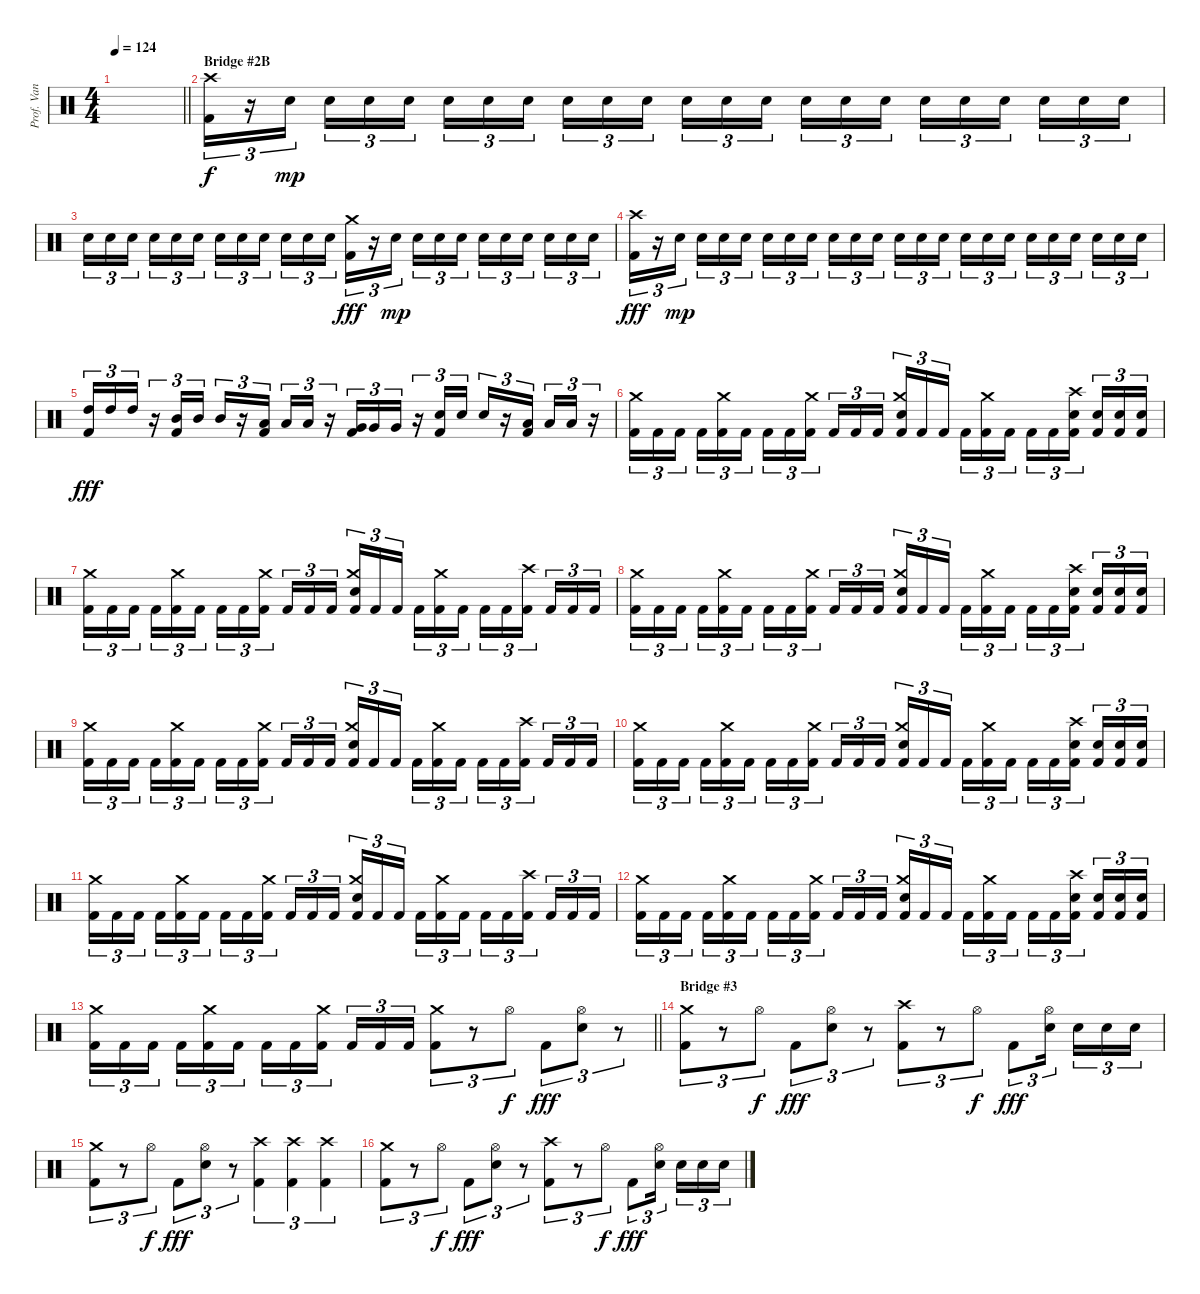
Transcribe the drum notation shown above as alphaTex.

\track ("Prof. Van Helsing (Drums)" "Prof. Van ") {instrument percussion}
\staff {score}
\articulation defaults
\ts (4 4)
\tempo 124
\clef neutral
\barLineRight lightlight
\ks c
|
\section ("" "Bridge #2B")
("Crash high (hit)" "Kick (hit) 2").16{tu (3 2)} r.16{tu (3 2)} "Electric Snare (hit)".16{tu (3 2) dy mp beam splitsecondary} "Electric Snare (hit)".16{tu (3 2)} "Electric Snare (hit)".16{tu (3 2)} "Electric Snare (hit)".16{tu (3 2)} "Electric Snare (hit)".16{tu (3 2)} "Electric Snare (hit)".16{tu (3 2)} "Electric Snare (hit)".16{tu (3 2) beam splitsecondary} "Electric Snare (hit)".16{tu (3 2)} "Electric Snare (hit)".16{tu (3 2)} "Electric Snare (hit)".16{tu (3 2)} "Electric Snare (hit)".16{tu (3 2)} "Electric Snare (hit)".16{tu (3 2)} "Electric Snare (hit)".16{tu (3 2) beam splitsecondary} "Electric Snare (hit)".16{tu (3 2)} "Electric Snare (hit)".16{tu (3 2)} "Electric Snare (hit)".16{tu (3 2)} "Electric Snare (hit)".16{tu (3 2)} "Electric Snare (hit)".16{tu (3 2)} "Electric Snare (hit)".16{tu (3 2) beam splitsecondary} "Electric Snare (hit)".16{tu (3 2)} "Electric Snare (hit)".16{tu (3 2)} "Electric Snare (hit)".16{tu (3 2)} |
"Electric Snare (hit)".16{tu (3 2)} "Electric Snare (hit)".16{tu (3 2)} "Electric Snare (hit)".16{tu (3 2) beam splitsecondary} "Electric Snare (hit)".16{tu (3 2)} "Electric Snare (hit)".16{tu (3 2)} "Electric Snare (hit)".16{tu (3 2)} "Electric Snare (hit)".16{tu (3 2)} "Electric Snare (hit)".16{tu (3 2)} "Electric Snare (hit)".16{tu (3 2) beam splitsecondary} "Electric Snare (hit)".16{tu (3 2)} "Electric Snare (hit)".16{tu (3 2)} "Electric Snare (hit)".16{tu (3 2)} ("Crash medium (hit)" "Kick (hit) 2").16{tu (3 2) dy fff} r.16{tu (3 2)} "Electric Snare (hit)".16{tu (3 2) dy mp beam splitsecondary} "Electric Snare (hit)".16{tu (3 2)} "Electric Snare (hit)".16{tu (3 2)} "Electric Snare (hit)".16{tu (3 2)} "Electric Snare (hit)".16{tu (3 2)} "Electric Snare (hit)".16{tu (3 2)} "Electric Snare (hit)".16{tu (3 2) beam splitsecondary} "Electric Snare (hit)".16{tu (3 2)} "Electric Snare (hit)".16{tu (3 2)} "Electric Snare (hit)".16{tu (3 2)} |
("Crash high (hit)" "Kick (hit) 2").16{tu (3 2) dy fff} r.16{tu (3 2)} "Electric Snare (hit)".16{tu (3 2) dy mp beam splitsecondary} "Electric Snare (hit)".16{tu (3 2)} "Electric Snare (hit)".16{tu (3 2)} "Electric Snare (hit)".16{tu (3 2)} "Electric Snare (hit)".16{tu (3 2)} "Electric Snare (hit)".16{tu (3 2)} "Electric Snare (hit)".16{tu (3 2) beam splitsecondary} "Electric Snare (hit)".16{tu (3 2)} "Electric Snare (hit)".16{tu (3 2)} "Electric Snare (hit)".16{tu (3 2)} "Electric Snare (hit)".16{tu (3 2)} "Electric Snare (hit)".16{tu (3 2)} "Electric Snare (hit)".16{tu (3 2) beam splitsecondary} "Electric Snare (hit)".16{tu (3 2)} "Electric Snare (hit)".16{tu (3 2)} "Electric Snare (hit)".16{tu (3 2)} "Electric Snare (hit)".16{tu (3 2)} "Electric Snare (hit)".16{tu (3 2)} "Electric Snare (hit)".16{tu (3 2) beam splitsecondary} "Electric Snare (hit)".16{tu (3 2)} "Electric Snare (hit)".16{tu (3 2)} "Electric Snare (hit)".16{tu (3 2)} |
("High Tom (hit)" "Kick (hit) 2").16{tu (3 2) dy fff} "High Tom (hit)".16{tu (3 2)} "High Tom (hit)".16{tu (3 2)} r.16{tu (3 2)} ("Mid Tom (hit)" "Kick (hit) 2").16{tu (3 2)} "Mid Tom (hit)".16{tu (3 2)} "Mid Tom (hit)".16{tu (3 2)} r.16{tu (3 2)} ("Low Tom (hit)" "Kick (hit) 2").16{tu (3 2) beam splitsecondary} "Low Tom (hit)".16{tu (3 2)} "Low Tom (hit)".16{tu (3 2)} r.16{tu (3 2)} ("Very Low Tom (hit)" "Kick (hit) 2").16{tu (3 2)} "Very Low Tom (hit)".16{tu (3 2)} "Very Low Tom (hit)".16{tu (3 2)} r.16{tu (3 2)} ("Snare (hit) 2" "Kick (hit) 2").16{tu (3 2)} "Snare (hit) 2".16{tu (3 2)} "Snare (hit) 2".16{tu (3 2)} r.16{tu (3 2)} ("Low Floor Tom (hit)" "Kick (hit) 2").16{tu (3 2) beam splitsecondary} "Low Floor Tom (hit)".16{tu (3 2)} "Low Floor Tom (hit)".16{tu (3 2)} r.16{tu (3 2)} |
("Crash medium (hit)" "Kick (hit) 2").16{tu (3 2)} "Kick (hit) 2".16{tu (3 2)} "Kick (hit) 2".16{tu (3 2) beam splitsecondary} "Kick (hit) 2".16{tu (3 2)} ("Crash medium (hit)" "Kick (hit) 2").16{tu (3 2)} "Kick (hit) 2".16{tu (3 2)} "Kick (hit) 2".16{tu (3 2)} "Kick (hit) 2".16{tu (3 2)} ("Crash medium (hit)" "Kick (hit) 2").16{tu (3 2) beam splitsecondary} "Kick (hit) 2".16{tu (3 2)} "Kick (hit) 2".16{tu (3 2)} "Kick (hit) 2".16{tu (3 2)} ("Crash medium (hit)" "Snare (hit) 2" "Kick (hit) 2").16{tu (3 2)} "Kick (hit) 2".16{tu (3 2)} "Kick (hit) 2".16{tu (3 2) beam splitsecondary} "Kick (hit) 2".16{tu (3 2)} ("Crash medium (hit)" "Kick (hit) 2").16{tu (3 2)} "Kick (hit) 2".16{tu (3 2)} "Kick (hit) 2".16{tu (3 2)} "Kick (hit) 2".16{tu (3 2)} ("Crash high (hit)" "Snare (hit) 2" "Kick (hit) 2").16{tu (3 2) beam splitsecondary} ("Snare (hit) 2" "Kick (hit) 2").16{tu (3 2)} ("Snare (hit) 2" "Kick (hit) 2").16{tu (3 2)} ("Snare (hit) 2" "Kick (hit) 2").16{tu (3 2)} |
("Crash medium (hit)" "Kick (hit) 2").16{tu (3 2)} "Kick (hit) 2".16{tu (3 2)} "Kick (hit) 2".16{tu (3 2) beam splitsecondary} "Kick (hit) 2".16{tu (3 2)} ("Crash medium (hit)" "Kick (hit) 2").16{tu (3 2)} "Kick (hit) 2".16{tu (3 2)} "Kick (hit) 2".16{tu (3 2)} "Kick (hit) 2".16{tu (3 2)} ("Crash medium (hit)" "Kick (hit) 2").16{tu (3 2) beam splitsecondary} "Kick (hit) 2".16{tu (3 2)} "Kick (hit) 2".16{tu (3 2)} "Kick (hit) 2".16{tu (3 2)} ("Crash medium (hit)" "Snare (hit) 2" "Kick (hit) 2").16{tu (3 2)} "Kick (hit) 2".16{tu (3 2)} "Kick (hit) 2".16{tu (3 2) beam splitsecondary} "Kick (hit) 2".16{tu (3 2)} ("Crash medium (hit)" "Kick (hit) 2").16{tu (3 2)} "Kick (hit) 2".16{tu (3 2)} "Kick (hit) 2".16{tu (3 2)} "Kick (hit) 2".16{tu (3 2)} ("Crash high (hit)" "Kick (hit) 2").16{tu (3 2) beam splitsecondary} "Kick (hit) 2".16{tu (3 2)} "Kick (hit) 2".16{tu (3 2)} "Kick (hit) 2".16{tu (3 2)} |
("Crash medium (hit)" "Kick (hit) 2").16{tu (3 2)} "Kick (hit) 2".16{tu (3 2)} "Kick (hit) 2".16{tu (3 2) beam splitsecondary} "Kick (hit) 2".16{tu (3 2)} ("Crash medium (hit)" "Kick (hit) 2").16{tu (3 2)} "Kick (hit) 2".16{tu (3 2)} "Kick (hit) 2".16{tu (3 2)} "Kick (hit) 2".16{tu (3 2)} ("Crash medium (hit)" "Kick (hit) 2").16{tu (3 2) beam splitsecondary} "Kick (hit) 2".16{tu (3 2)} "Kick (hit) 2".16{tu (3 2)} "Kick (hit) 2".16{tu (3 2)} ("Crash medium (hit)" "Snare (hit) 2" "Kick (hit) 2").16{tu (3 2)} "Kick (hit) 2".16{tu (3 2)} "Kick (hit) 2".16{tu (3 2) beam splitsecondary} "Kick (hit) 2".16{tu (3 2)} ("Crash medium (hit)" "Kick (hit) 2").16{tu (3 2)} "Kick (hit) 2".16{tu (3 2)} "Kick (hit) 2".16{tu (3 2)} "Kick (hit) 2".16{tu (3 2)} ("Crash high (hit)" "Snare (hit) 2" "Kick (hit) 2").16{tu (3 2) beam splitsecondary} ("Snare (hit) 2" "Kick (hit) 2").16{tu (3 2)} ("Snare (hit) 2" "Kick (hit) 2").16{tu (3 2)} ("Snare (hit) 2" "Kick (hit) 2").16{tu (3 2)} |
("Crash medium (hit)" "Kick (hit) 2").16{tu (3 2)} "Kick (hit) 2".16{tu (3 2)} "Kick (hit) 2".16{tu (3 2) beam splitsecondary} "Kick (hit) 2".16{tu (3 2)} ("Crash medium (hit)" "Kick (hit) 2").16{tu (3 2)} "Kick (hit) 2".16{tu (3 2)} "Kick (hit) 2".16{tu (3 2)} "Kick (hit) 2".16{tu (3 2)} ("Crash medium (hit)" "Kick (hit) 2").16{tu (3 2) beam splitsecondary} "Kick (hit) 2".16{tu (3 2)} "Kick (hit) 2".16{tu (3 2)} "Kick (hit) 2".16{tu (3 2)} ("Crash medium (hit)" "Snare (hit) 2" "Kick (hit) 2").16{tu (3 2)} "Kick (hit) 2".16{tu (3 2)} "Kick (hit) 2".16{tu (3 2) beam splitsecondary} "Kick (hit) 2".16{tu (3 2)} ("Crash medium (hit)" "Kick (hit) 2").16{tu (3 2)} "Kick (hit) 2".16{tu (3 2)} "Kick (hit) 2".16{tu (3 2)} "Kick (hit) 2".16{tu (3 2)} ("Crash high (hit)" "Kick (hit) 2").16{tu (3 2) beam splitsecondary} "Kick (hit) 2".16{tu (3 2)} "Kick (hit) 2".16{tu (3 2)} "Kick (hit) 2".16{tu (3 2)} |
("Crash medium (hit)" "Kick (hit) 2").16{tu (3 2)} "Kick (hit) 2".16{tu (3 2)} "Kick (hit) 2".16{tu (3 2) beam splitsecondary} "Kick (hit) 2".16{tu (3 2)} ("Crash medium (hit)" "Kick (hit) 2").16{tu (3 2)} "Kick (hit) 2".16{tu (3 2)} "Kick (hit) 2".16{tu (3 2)} "Kick (hit) 2".16{tu (3 2)} ("Crash medium (hit)" "Kick (hit) 2").16{tu (3 2) beam splitsecondary} "Kick (hit) 2".16{tu (3 2)} "Kick (hit) 2".16{tu (3 2)} "Kick (hit) 2".16{tu (3 2)} ("Crash medium (hit)" "Snare (hit) 2" "Kick (hit) 2").16{tu (3 2)} "Kick (hit) 2".16{tu (3 2)} "Kick (hit) 2".16{tu (3 2) beam splitsecondary} "Kick (hit) 2".16{tu (3 2)} ("Crash medium (hit)" "Kick (hit) 2").16{tu (3 2)} "Kick (hit) 2".16{tu (3 2)} "Kick (hit) 2".16{tu (3 2)} "Kick (hit) 2".16{tu (3 2)} ("Crash high (hit)" "Snare (hit) 2" "Kick (hit) 2").16{tu (3 2) beam splitsecondary} ("Snare (hit) 2" "Kick (hit) 2").16{tu (3 2)} ("Snare (hit) 2" "Kick (hit) 2").16{tu (3 2)} ("Snare (hit) 2" "Kick (hit) 2").16{tu (3 2)} |
("Crash medium (hit)" "Kick (hit) 2").16{tu (3 2)} "Kick (hit) 2".16{tu (3 2)} "Kick (hit) 2".16{tu (3 2) beam splitsecondary} "Kick (hit) 2".16{tu (3 2)} ("Crash medium (hit)" "Kick (hit) 2").16{tu (3 2)} "Kick (hit) 2".16{tu (3 2)} "Kick (hit) 2".16{tu (3 2)} "Kick (hit) 2".16{tu (3 2)} ("Crash medium (hit)" "Kick (hit) 2").16{tu (3 2) beam splitsecondary} "Kick (hit) 2".16{tu (3 2)} "Kick (hit) 2".16{tu (3 2)} "Kick (hit) 2".16{tu (3 2)} ("Crash medium (hit)" "Snare (hit) 2" "Kick (hit) 2").16{tu (3 2)} "Kick (hit) 2".16{tu (3 2)} "Kick (hit) 2".16{tu (3 2) beam splitsecondary} "Kick (hit) 2".16{tu (3 2)} ("Crash medium (hit)" "Kick (hit) 2").16{tu (3 2)} "Kick (hit) 2".16{tu (3 2)} "Kick (hit) 2".16{tu (3 2)} "Kick (hit) 2".16{tu (3 2)} ("Crash high (hit)" "Kick (hit) 2").16{tu (3 2) beam splitsecondary} "Kick (hit) 2".16{tu (3 2)} "Kick (hit) 2".16{tu (3 2)} "Kick (hit) 2".16{tu (3 2)} |
("Crash medium (hit)" "Kick (hit) 2").16{tu (3 2)} "Kick (hit) 2".16{tu (3 2)} "Kick (hit) 2".16{tu (3 2) beam splitsecondary} "Kick (hit) 2".16{tu (3 2)} ("Crash medium (hit)" "Kick (hit) 2").16{tu (3 2)} "Kick (hit) 2".16{tu (3 2)} "Kick (hit) 2".16{tu (3 2)} "Kick (hit) 2".16{tu (3 2)} ("Crash medium (hit)" "Kick (hit) 2").16{tu (3 2) beam splitsecondary} "Kick (hit) 2".16{tu (3 2)} "Kick (hit) 2".16{tu (3 2)} "Kick (hit) 2".16{tu (3 2)} ("Crash medium (hit)" "Snare (hit) 2" "Kick (hit) 2").16{tu (3 2)} "Kick (hit) 2".16{tu (3 2)} "Kick (hit) 2".16{tu (3 2) beam splitsecondary} "Kick (hit) 2".16{tu (3 2)} ("Crash medium (hit)" "Kick (hit) 2").16{tu (3 2)} "Kick (hit) 2".16{tu (3 2)} "Kick (hit) 2".16{tu (3 2)} "Kick (hit) 2".16{tu (3 2)} ("Crash high (hit)" "Snare (hit) 2" "Kick (hit) 2").16{tu (3 2) beam splitsecondary} ("Snare (hit) 2" "Kick (hit) 2").16{tu (3 2)} ("Snare (hit) 2" "Kick (hit) 2").16{tu (3 2)} ("Snare (hit) 2" "Kick (hit) 2").16{tu (3 2)} |
\barLineRight lightlight
("Crash medium (hit)" "Kick (hit) 2").16{tu (3 2)} "Kick (hit) 2".16{tu (3 2)} "Kick (hit) 2".16{tu (3 2) beam splitsecondary} "Kick (hit) 2".16{tu (3 2)} ("Crash medium (hit)" "Kick (hit) 2").16{tu (3 2)} "Kick (hit) 2".16{tu (3 2)} "Kick (hit) 2".16{tu (3 2)} "Kick (hit) 2".16{tu (3 2)} ("Crash medium (hit)" "Kick (hit) 2").16{tu (3 2) beam splitsecondary} "Kick (hit) 2".16{tu (3 2)} "Kick (hit) 2".16{tu (3 2)} "Kick (hit) 2".16{tu (3 2)} ("Crash medium (hit)" "Kick (hit) 2").8{tu (3 2)} r.8{tu (3 2)} "Hi-Hat (open)".8{tu (3 2) dy f} "Kick (hit) 2".8{tu (3 2) dy fff} ("Hi-Hat (open)" "Snare (hit) 2").8{tu (3 2)} r.8{tu (3 2)} |
\section ("" "Bridge #3")
("Crash medium (hit)" "Kick (hit) 2").8{tu (3 2)} r.8{tu (3 2)} "Hi-Hat (open)".8{tu (3 2) dy f} "Kick (hit) 2".8{tu (3 2) dy fff} ("Hi-Hat (open)" "Snare (hit) 2").8{tu (3 2)} r.8{tu (3 2)} ("Crash high (hit)" "Kick (hit) 2").8{tu (3 2)} r.8{tu (3 2)} "Hi-Hat (open)".8{tu (3 2) dy f} "Kick (hit) 2".8{tu (3 2) dy fff} ("Hi-Hat (open)" "Snare (hit) 2").16{tu (3 2) beam splitsecondary} "Snare (hit) 2".16{tu (3 2)} "Snare (hit) 2".16{tu (3 2)} "Snare (hit) 2".16{tu (3 2)} |
("Crash medium (hit)" "Kick (hit) 2").8{tu (3 2)} r.8{tu (3 2)} "Hi-Hat (open)".8{tu (3 2) dy f} "Kick (hit) 2".8{tu (3 2) dy fff} ("Hi-Hat (open)" "Snare (hit) 2").8{tu (3 2)} r.8{tu (3 2)} ("Crash high (hit)" "Kick (hit) 2").4{tu (3 2)} ("Crash high (hit)" "Kick (hit) 2").4{tu (3 2)} ("Crash high (hit)" "Kick (hit) 2").4{tu (3 2)} |
("Crash medium (hit)" "Kick (hit) 2").8{tu (3 2)} r.8{tu (3 2)} "Hi-Hat (open)".8{tu (3 2) dy f} "Kick (hit) 2".8{tu (3 2) dy fff} ("Hi-Hat (open)" "Snare (hit) 2").8{tu (3 2)} r.8{tu (3 2)} ("Crash high (hit)" "Kick (hit) 2").8{tu (3 2)} r.8{tu (3 2)} "Hi-Hat (open)".8{tu (3 2) dy f} "Kick (hit) 2".8{tu (3 2) dy fff} ("Hi-Hat (open)" "Snare (hit) 2").16{tu (3 2) beam splitsecondary} "Snare (hit) 2".16{tu (3 2)} "Snare (hit) 2".16{tu (3 2)} "Snare (hit) 2".16{tu (3 2)}
